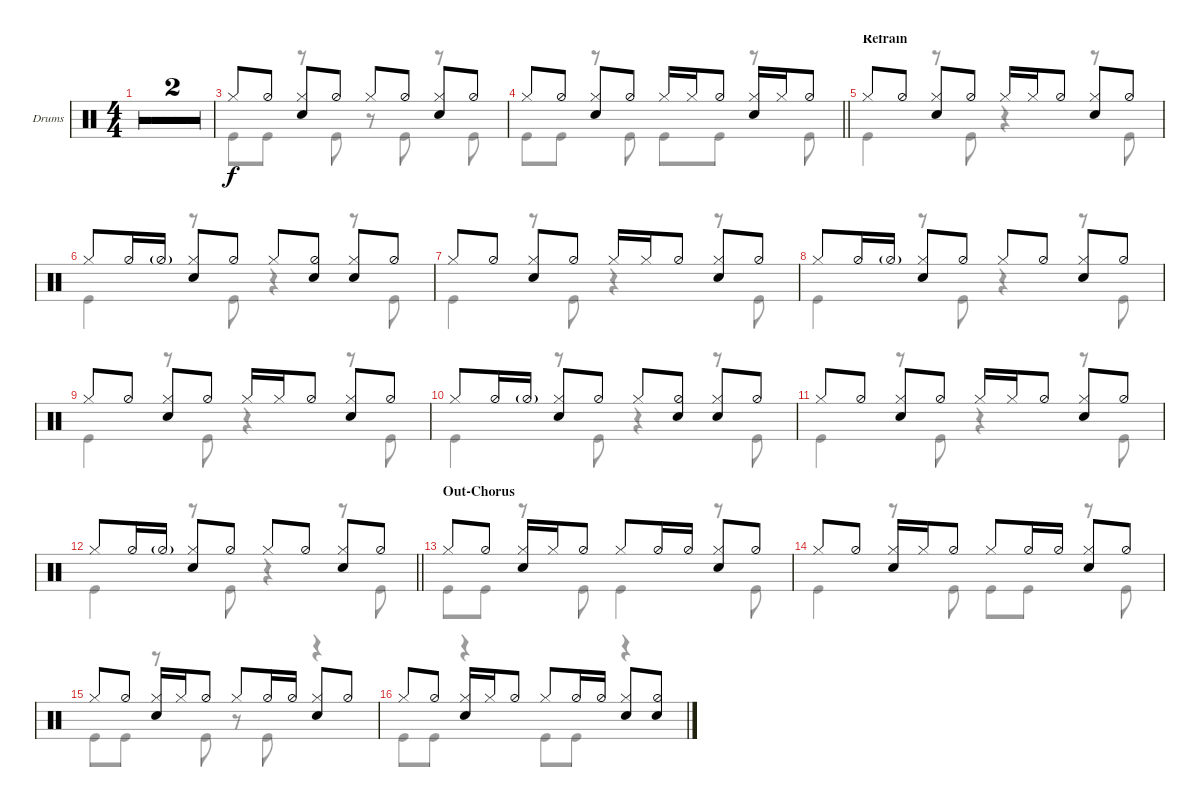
\defaultSystemsLayout 4
\bracketExtendMode groupsimilarinstruments
\firstSystemTrackNameOrientation horizontal
\otherSystemsTrackNameOrientation horizontal
\track ("Drums" "Drums") {multiBarRest instrument percussion}
\staff {score}
\articulation defaults
\voice
\ts (4 4)
\tempo 120
\clef neutral
\simile firstofdouble
\ks c
|
\simile secondofdouble
|
\simile none "Hi-Hat (closed)".8 "Hi-Hat (half)".8
("Hi-Hat (closed)" "Snare (hit) 2").8 "Hi-Hat (half)".8 "Hi-Hat (closed)".8 "Hi-Hat (half)".8 ("Hi-Hat (closed)" "Snare (hit) 2").8 "Hi-Hat (half)".8 |
\barLineRight lightlight "Hi-Hat (closed)".8 "Hi-Hat (half)".8
("Hi-Hat (closed)" "Snare (hit) 2").8 "Hi-Hat (half)".8 "Hi-Hat (closed)".16 "Hi-Hat (closed)".16 "Hi-Hat (half)".8 ("Hi-Hat (closed)" "Snare (hit) 2").16 "Hi-Hat (closed)".16 "Hi-Hat (half)".8 |
\section ("" "Refrain")
"Hi-Hat (closed)".8 "Hi-Hat (half)".8 ("Hi-Hat (closed)" "Snare (hit) 2").8 "Hi-Hat (half)".8 "Hi-Hat (closed)".16 "Hi-Hat (closed)".16 "Hi-Hat (half)".8 ("Hi-Hat (closed)" "Snare (hit) 2").8 "Hi-Hat (half)".8 |
"Hi-Hat (closed)".8 "Hi-Hat (half)".16 "Hi-Hat (half)"{g}.16 ("Hi-Hat (closed)" "Snare (hit) 2").8 "Hi-Hat (half)".8 "Hi-Hat (closed)".8 ("Hi-Hat (half)" "Snare (hit) 2").8 ("Hi-Hat (closed)" "Snare (hit) 2").8 "Hi-Hat (half)".8 |
"Hi-Hat (closed)".8 "Hi-Hat (half)".8 ("Hi-Hat (closed)" "Snare (hit) 2").8 "Hi-Hat (half)".8 "Hi-Hat (closed)".16 "Hi-Hat (closed)".16 "Hi-Hat (half)".8 ("Hi-Hat (closed)" "Snare (hit) 2").8 "Hi-Hat (half)".8 |
"Hi-Hat (closed)".8 "Hi-Hat (half)".16 "Hi-Hat (half)"{g}.16 ("Hi-Hat (closed)" "Snare (hit) 2").8 "Hi-Hat (half)".8 "Hi-Hat (closed)".8 "Hi-Hat (half)".8 ("Hi-Hat (closed)" "Snare (hit) 2").8 "Hi-Hat (half)".8 |
"Hi-Hat (closed)".8 "Hi-Hat (half)".8 ("Hi-Hat (closed)" "Snare (hit) 2").8 "Hi-Hat (half)".8 "Hi-Hat (closed)".16 "Hi-Hat (closed)".16 "Hi-Hat (half)".8 ("Hi-Hat (closed)" "Snare (hit) 2").8 "Hi-Hat (half)".8 |
"Hi-Hat (closed)".8 "Hi-Hat (half)".16 "Hi-Hat (half)"{g}.16 ("Hi-Hat (closed)" "Snare (hit) 2").8 "Hi-Hat (half)".8 "Hi-Hat (closed)".8 ("Hi-Hat (half)" "Snare (hit) 2").8 ("Hi-Hat (closed)" "Snare (hit) 2").8 "Hi-Hat (half)".8 |
"Hi-Hat (closed)".8 "Hi-Hat (half)".8 ("Hi-Hat (closed)" "Snare (hit) 2").8 "Hi-Hat (half)".8 "Hi-Hat (closed)".16 "Hi-Hat (closed)".16 "Hi-Hat (half)".8 ("Hi-Hat (closed)" "Snare (hit) 2").8 "Hi-Hat (half)".8 |
\barLineRight lightlight "Hi-Hat (closed)".8 "Hi-Hat (half)".16 "Hi-Hat (half)"{g}.16
("Hi-Hat (closed)" "Snare (hit) 2").8 "Hi-Hat (half)".8 "Hi-Hat (closed)".8 "Hi-Hat (half)".8 ("Hi-Hat (closed)" "Snare (hit) 2").8 "Hi-Hat (half)".8 |
\section ("" "Out-Chorus")
"Hi-Hat (closed)".8 "Hi-Hat (half)".8 ("Hi-Hat (closed)" "Snare (hit) 2").16 "Hi-Hat (closed)".16 "Hi-Hat (half)".8 "Hi-Hat (closed)".8 "Hi-Hat (half)".16 "Hi-Hat (half)".16 ("Hi-Hat (closed)" "Snare (hit) 2").8 "Hi-Hat (half)".8 |
"Hi-Hat (closed)".8 "Hi-Hat (half)".8 ("Hi-Hat (closed)" "Snare (hit) 2").16 "Hi-Hat (closed)".16 "Hi-Hat (half)".8 "Hi-Hat (closed)".8 "Hi-Hat (half)".16 "Hi-Hat (half)".16 ("Hi-Hat (closed)" "Snare (hit) 2").8 "Hi-Hat (half)".8 |
"Hi-Hat (closed)".8 "Hi-Hat (half)".8 ("Hi-Hat (closed)" "Snare (hit) 2").16 "Hi-Hat (closed)".16 "Hi-Hat (half)".8 "Hi-Hat (closed)".8 "Hi-Hat (half)".16 "Hi-Hat (half)".16 ("Hi-Hat (closed)" "Snare (hit) 2").8 "Hi-Hat (half)".8 |
"Hi-Hat (closed)".8 "Hi-Hat (half)".8 ("Hi-Hat (closed)" "Snare (hit) 2").16 "Hi-Hat (closed)".16 "Hi-Hat (half)".8 "Hi-Hat (closed)".8 "Hi-Hat (half)".16 "Hi-Hat (half)".16 ("Hi-Hat (closed)" "Snare (hit) 2").8 ("Hi-Hat (half)" "Snare (hit) 2").8
\voice
\clef neutral
\ottava regular
\simile firstofdouble
\ks c
|
\simile secondofdouble
|
\simile none "Kick (hit)".8 "Kick (hit)".8
r.8 "Kick (hit)".8 r.8 "Kick (hit)".8 r.8 "Kick (hit)".8 |
\barLineRight lightlight "Kick (hit)".8 "Kick (hit)".8
r.8 "Kick (hit)".8 "Kick (hit)".8 "Kick (hit)".8 r.8 "Kick (hit)".8 |
"Kick (hit)".4 r.8 "Kick (hit)".8 r.4 r.8 "Kick (hit)".8 |
"Kick (hit)".4 r.8 "Kick (hit)".8 r.4 r.8 "Kick (hit)".8 |
"Kick (hit)".4 r.8 "Kick (hit)".8 r.4 r.8 "Kick (hit)".8 |
"Kick (hit)".4 r.8 "Kick (hit)".8 r.4 r.8 "Kick (hit)".8 |
"Kick (hit)".4 r.8 "Kick (hit)".8 r.4 r.8 "Kick (hit)".8 |
"Kick (hit)".4 r.8 "Kick (hit)".8 r.4 r.8 "Kick (hit)".8 |
"Kick (hit)".4 r.8 "Kick (hit)".8 r.4 r.8 "Kick (hit)".8 |
\barLineRight lightlight "Kick (hit)".4
r.8 "Kick (hit)".8 r.4 r.8 "Kick (hit)".8 |
"Kick (hit)".8 "Kick (hit)".8 r.8 "Kick (hit)".8 "Kick (hit)".4 r.8 "Kick (hit)".8 |
"Kick (hit)".4 r.8 "Kick (hit)".8 "Kick (hit)".8 "Kick (hit)".8 r.8 "Kick (hit)".8 |
"Kick (hit)".8 "Kick (hit)".8 r.8 "Kick (hit)".8 r.8 "Kick (hit)".8 r.4 |
"Kick (hit)".8 "Kick (hit)".8 r.4 "Kick (hit)".8 "Kick (hit)".8 r.4
